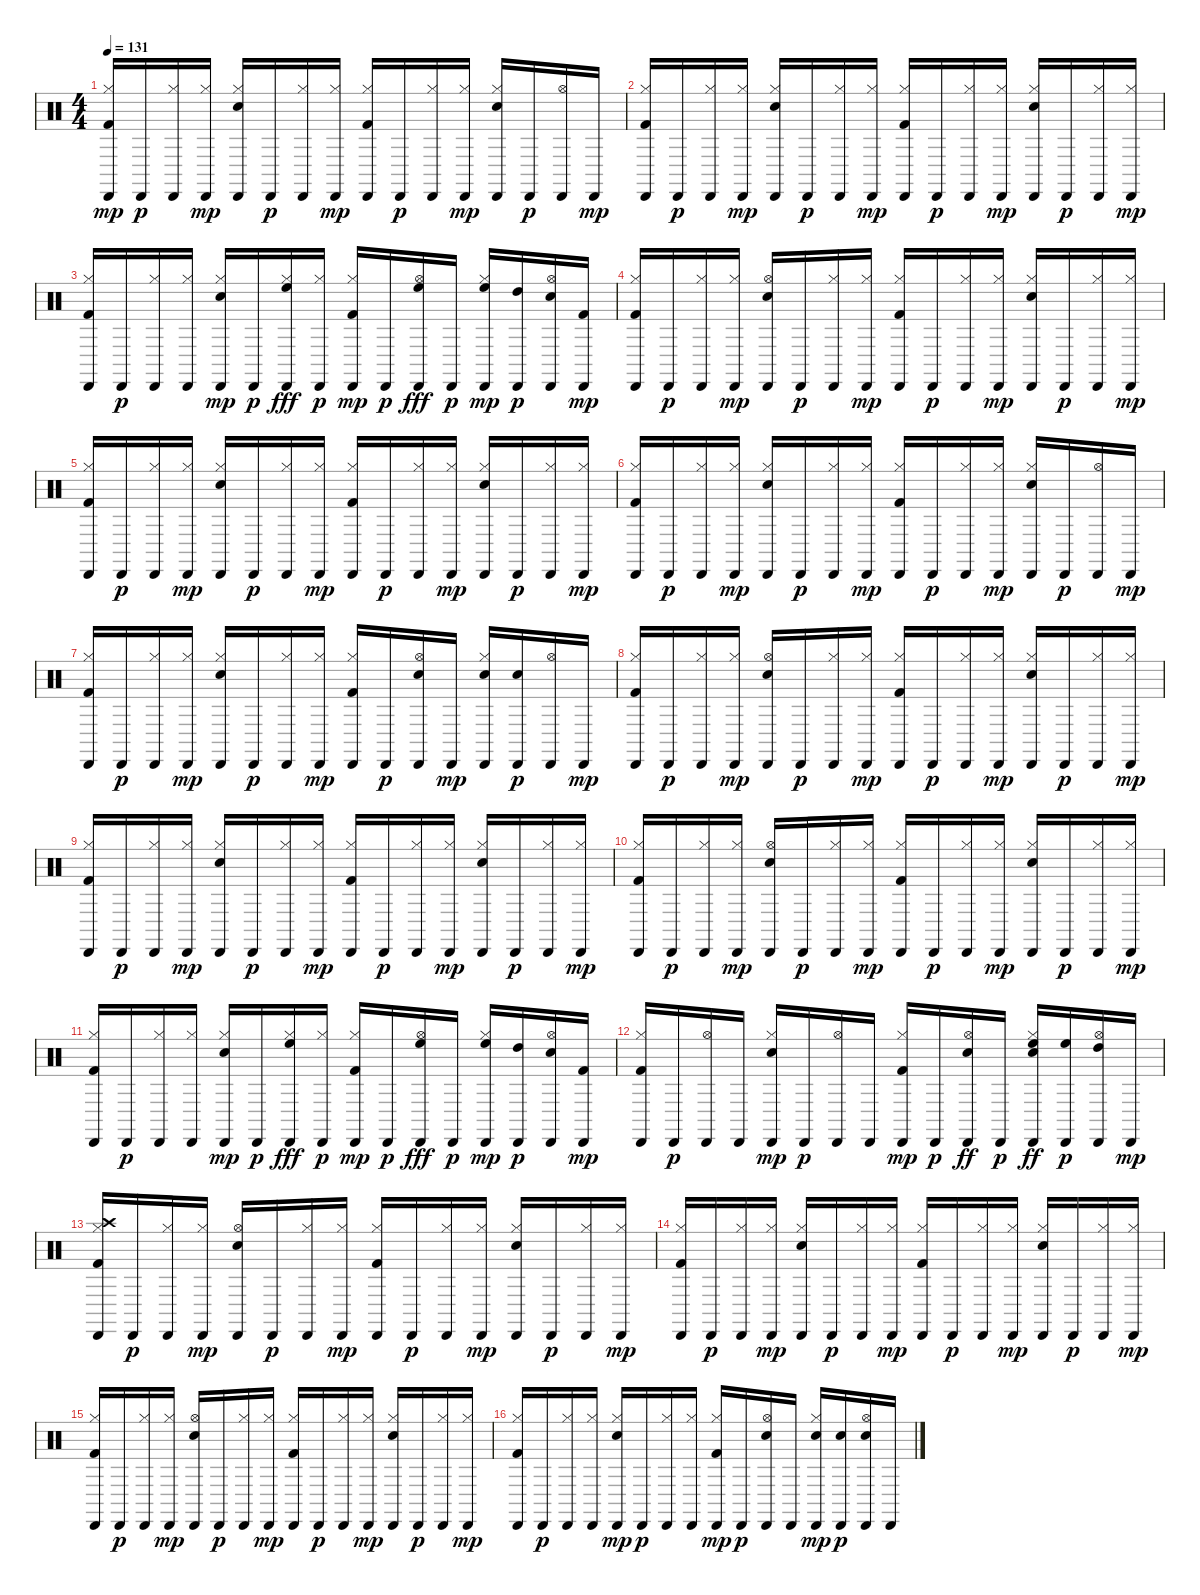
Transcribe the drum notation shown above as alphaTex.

\track "" {instrument percussion}
\staff {score}
\articulation defaults
\ts (4 4)
\tempo 131
\clef neutral
\ks c
("Kick (hit) 2" "Hi-Hat (closed)" "Cabasa (hit)").16{dy mp} "Cabasa (hit)".16{dy p} ("Hi-Hat (closed)" "Cabasa (hit)").16 ("Hi-Hat (closed)" "Cabasa (hit)").16{dy mp} ("Snare (hit) 2" "Hi-Hat (closed)" "Cabasa (hit)").16 "Cabasa (hit)".16{dy p} ("Hi-Hat (closed)" "Cabasa (hit)").16 ("Hi-Hat (closed)" "Cabasa (hit)").16{dy mp} ("Kick (hit) 2" "Hi-Hat (closed)" "Cabasa (hit)").16 "Cabasa (hit)".16{dy p} ("Hi-Hat (closed)" "Cabasa (hit)").16 ("Hi-Hat (closed)" "Cabasa (hit)").16{dy mp} ("Snare (hit) 2" "Hi-Hat (closed)" "Cabasa (hit)").16 "Cabasa (hit)".16{dy p} ("Hi-Hat (open)" "Cabasa (hit)").16 "Cabasa (hit)".16{dy mp} |
("Kick (hit) 2" "Hi-Hat (closed)" "Cabasa (hit)").16 "Cabasa (hit)".16{dy p} ("Hi-Hat (closed)" "Cabasa (hit)").16 ("Hi-Hat (closed)" "Cabasa (hit)").16{dy mp} ("Snare (hit) 2" "Hi-Hat (closed)" "Cabasa (hit)").16 "Cabasa (hit)".16{dy p} ("Hi-Hat (closed)" "Cabasa (hit)").16 ("Hi-Hat (closed)" "Cabasa (hit)").16{dy mp} ("Kick (hit) 2" "Hi-Hat (closed)" "Cabasa (hit)").16 "Cabasa (hit)".16{dy p} ("Hi-Hat (closed)" "Cabasa (hit)").16 ("Hi-Hat (closed)" "Cabasa (hit)").16{dy mp} ("Snare (hit) 2" "Hi-Hat (closed)" "Cabasa (hit)").16 "Cabasa (hit)".16{dy p} ("Hi-Hat (closed)" "Cabasa (hit)").16 ("Hi-Hat (closed)" "Cabasa (hit)").16{dy mp} |
("Kick (hit) 2" "Hi-Hat (closed)" "Cabasa (hit)").16 "Cabasa (hit)".16{dy p} ("Hi-Hat (closed)" "Cabasa (hit)").16 ("Hi-Hat (closed)" "Cabasa (hit)").16 ("Snare (hit) 2" "Hi-Hat (closed)" "Cabasa (hit)").16{dy mp} "Cabasa (hit)".16{dy p} ("Hi-Hat (closed)" "Cabasa (hit)" "High Floor Tom (hit)").16{dy fff} ("Hi-Hat (closed)" "Cabasa (hit)").16{dy p} ("Kick (hit) 2" "Hi-Hat (closed)" "Cabasa (hit)").16{dy mp} "Cabasa (hit)".16{dy p} ("Hi-Hat (open)" "Cabasa (hit)" "High Floor Tom (hit)").16{dy fff} "Cabasa (hit)".16{dy p} ("Hi-Hat (closed)" "Cabasa (hit)" "High Floor Tom (hit)").16{dy mp} ("High Tom (hit)" "Cabasa (hit)").16{dy p} ("Snare (hit) 2" "Hi-Hat (open)" "Cabasa (hit)").16 ("Kick (hit) 2" "Cabasa (hit)").16{dy mp} |
("Kick (hit) 2" "Hi-Hat (closed)" "Cabasa (hit)").16 "Cabasa (hit)".16{dy p} ("Hi-Hat (closed)" "Cabasa (hit)").16 ("Hi-Hat (closed)" "Cabasa (hit)").16{dy mp} ("Snare (hit) 2" "Hi-Hat (open)" "Cabasa (hit)").16 "Cabasa (hit)".16{dy p} ("Hi-Hat (closed)" "Cabasa (hit)").16 ("Hi-Hat (closed)" "Cabasa (hit)").16{dy mp} ("Kick (hit) 2" "Hi-Hat (closed)" "Cabasa (hit)").16 "Cabasa (hit)".16{dy p} ("Hi-Hat (closed)" "Cabasa (hit)").16 ("Hi-Hat (closed)" "Cabasa (hit)").16{dy mp} ("Snare (hit) 2" "Hi-Hat (closed)" "Cabasa (hit)").16 "Cabasa (hit)".16{dy p} ("Hi-Hat (closed)" "Cabasa (hit)").16 ("Hi-Hat (closed)" "Cabasa (hit)").16{dy mp} |
("Kick (hit) 2" "Hi-Hat (closed)" "Cabasa (hit)").16 "Cabasa (hit)".16{dy p} ("Hi-Hat (closed)" "Cabasa (hit)").16 ("Hi-Hat (closed)" "Cabasa (hit)").16{dy mp} ("Snare (hit) 2" "Hi-Hat (closed)" "Cabasa (hit)").16 "Cabasa (hit)".16{dy p} ("Hi-Hat (closed)" "Cabasa (hit)").16 ("Hi-Hat (closed)" "Cabasa (hit)").16{dy mp} ("Kick (hit) 2" "Hi-Hat (closed)" "Cabasa (hit)").16 "Cabasa (hit)".16{dy p} ("Hi-Hat (closed)" "Cabasa (hit)").16 ("Hi-Hat (closed)" "Cabasa (hit)").16{dy mp} ("Snare (hit) 2" "Hi-Hat (closed)" "Cabasa (hit)").16 "Cabasa (hit)".16{dy p} ("Hi-Hat (closed)" "Cabasa (hit)").16 ("Hi-Hat (closed)" "Cabasa (hit)").16{dy mp} |
("Kick (hit) 2" "Hi-Hat (closed)" "Cabasa (hit)").16 "Cabasa (hit)".16{dy p} ("Hi-Hat (closed)" "Cabasa (hit)").16 ("Hi-Hat (closed)" "Cabasa (hit)").16{dy mp} ("Snare (hit) 2" "Hi-Hat (closed)" "Cabasa (hit)").16 "Cabasa (hit)".16{dy p} ("Hi-Hat (closed)" "Cabasa (hit)").16 ("Hi-Hat (closed)" "Cabasa (hit)").16{dy mp} ("Kick (hit) 2" "Hi-Hat (closed)" "Cabasa (hit)").16 "Cabasa (hit)".16{dy p} ("Hi-Hat (closed)" "Cabasa (hit)").16 ("Hi-Hat (closed)" "Cabasa (hit)").16{dy mp} ("Snare (hit) 2" "Hi-Hat (closed)" "Cabasa (hit)").16 "Cabasa (hit)".16{dy p} ("Hi-Hat (open)" "Cabasa (hit)").16 "Cabasa (hit)".16{dy mp} |
("Kick (hit) 2" "Hi-Hat (closed)" "Cabasa (hit)").16 "Cabasa (hit)".16{dy p} ("Hi-Hat (closed)" "Cabasa (hit)").16 ("Hi-Hat (closed)" "Cabasa (hit)").16{dy mp} ("Snare (hit) 2" "Hi-Hat (closed)" "Cabasa (hit)").16 "Cabasa (hit)".16{dy p} ("Hi-Hat (closed)" "Cabasa (hit)").16 ("Hi-Hat (closed)" "Cabasa (hit)").16{dy mp} ("Kick (hit) 2" "Hi-Hat (closed)" "Cabasa (hit)").16 "Cabasa (hit)".16{dy p} ("Snare (hit) 2" "Hi-Hat (open)" "Cabasa (hit)").16 "Cabasa (hit)".16{dy mp} ("Snare (hit) 2" "Hi-Hat (closed)" "Cabasa (hit)").16 ("Snare (hit) 2" "Cabasa (hit)").16{dy p} ("Hi-Hat (open)" "Cabasa (hit)").16 "Cabasa (hit)".16{dy mp} |
("Kick (hit) 2" "Hi-Hat (closed)" "Cabasa (hit)").16 "Cabasa (hit)".16{dy p} ("Hi-Hat (closed)" "Cabasa (hit)").16 ("Hi-Hat (closed)" "Cabasa (hit)").16{dy mp} ("Snare (hit) 2" "Hi-Hat (open)" "Cabasa (hit)").16 "Cabasa (hit)".16{dy p} ("Hi-Hat (closed)" "Cabasa (hit)").16 ("Hi-Hat (closed)" "Cabasa (hit)").16{dy mp} ("Kick (hit) 2" "Hi-Hat (closed)" "Cabasa (hit)").16 "Cabasa (hit)".16{dy p} ("Hi-Hat (closed)" "Cabasa (hit)").16 ("Hi-Hat (closed)" "Cabasa (hit)").16{dy mp} ("Snare (hit) 2" "Hi-Hat (closed)" "Cabasa (hit)").16 "Cabasa (hit)".16{dy p} ("Hi-Hat (closed)" "Cabasa (hit)").16 ("Hi-Hat (closed)" "Cabasa (hit)").16{dy mp} |
("Kick (hit) 2" "Hi-Hat (closed)" "Cabasa (hit)").16 "Cabasa (hit)".16{dy p} ("Hi-Hat (closed)" "Cabasa (hit)").16 ("Hi-Hat (closed)" "Cabasa (hit)").16{dy mp} ("Snare (hit) 2" "Hi-Hat (closed)" "Cabasa (hit)").16 "Cabasa (hit)".16{dy p} ("Hi-Hat (closed)" "Cabasa (hit)").16 ("Hi-Hat (closed)" "Cabasa (hit)").16{dy mp} ("Kick (hit) 2" "Hi-Hat (closed)" "Cabasa (hit)").16 "Cabasa (hit)".16{dy p} ("Hi-Hat (closed)" "Cabasa (hit)").16 ("Hi-Hat (closed)" "Cabasa (hit)").16{dy mp} ("Snare (hit) 2" "Hi-Hat (closed)" "Cabasa (hit)").16 "Cabasa (hit)".16{dy p} ("Hi-Hat (closed)" "Cabasa (hit)").16 ("Hi-Hat (closed)" "Cabasa (hit)").16{dy mp} |
("Kick (hit) 2" "Hi-Hat (closed)" "Cabasa (hit)").16 "Cabasa (hit)".16{dy p} ("Hi-Hat (closed)" "Cabasa (hit)").16 ("Hi-Hat (closed)" "Cabasa (hit)").16{dy mp} ("Snare (hit) 2" "Hi-Hat (open)" "Cabasa (hit)").16 "Cabasa (hit)".16{dy p} ("Hi-Hat (closed)" "Cabasa (hit)").16 ("Hi-Hat (closed)" "Cabasa (hit)").16{dy mp} ("Kick (hit) 2" "Hi-Hat (closed)" "Cabasa (hit)").16 "Cabasa (hit)".16{dy p} ("Hi-Hat (closed)" "Cabasa (hit)").16 ("Hi-Hat (closed)" "Cabasa (hit)").16{dy mp} ("Snare (hit) 2" "Hi-Hat (closed)" "Cabasa (hit)").16 "Cabasa (hit)".16{dy p} ("Hi-Hat (closed)" "Cabasa (hit)").16 ("Hi-Hat (closed)" "Cabasa (hit)").16{dy mp} |
("Kick (hit) 2" "Hi-Hat (closed)" "Cabasa (hit)").16 "Cabasa (hit)".16{dy p} ("Hi-Hat (closed)" "Cabasa (hit)").16 ("Hi-Hat (closed)" "Cabasa (hit)").16 ("Snare (hit) 2" "Hi-Hat (closed)" "Cabasa (hit)").16{dy mp} "Cabasa (hit)".16{dy p} ("Hi-Hat (closed)" "Cabasa (hit)" "High Floor Tom (hit)").16{dy fff} ("Hi-Hat (closed)" "Cabasa (hit)").16{dy p} ("Kick (hit) 2" "Hi-Hat (closed)" "Cabasa (hit)").16{dy mp} "Cabasa (hit)".16{dy p} ("Hi-Hat (open)" "Cabasa (hit)" "High Floor Tom (hit)").16{dy fff} "Cabasa (hit)".16{dy p} ("Hi-Hat (closed)" "Cabasa (hit)" "High Floor Tom (hit)").16{dy mp} ("High Tom (hit)" "Cabasa (hit)").16{dy p} ("Snare (hit) 2" "Hi-Hat (open)" "Cabasa (hit)").16 ("Kick (hit) 2" "Cabasa (hit)").16{dy mp} |
("Kick (hit) 2" "Hi-Hat (closed)" "Cabasa (hit)").16 "Cabasa (hit)".16{dy p} ("Hi-Hat (open)" "Cabasa (hit)").16 "Cabasa (hit)".16 ("Snare (hit) 2" "Hi-Hat (closed)" "Cabasa (hit)").16{dy mp} "Cabasa (hit)".16{dy p} ("Hi-Hat (open)" "Cabasa (hit)").16 "Cabasa (hit)".16 ("Kick (hit) 2" "Hi-Hat (closed)" "Cabasa (hit)").16{dy mp} "Cabasa (hit)".16{dy p} ("Hi-Hat (open)" "Cabasa (hit)" "Electric Snare (hit)").16{dy ff} "Cabasa (hit)".16{dy p} ("Snare (hit) 2" "Hi-Hat (closed)" "Cabasa (hit)" "High Floor Tom (hit)").16{dy ff} ("Cabasa (hit)" "High Floor Tom (hit)").16{dy p} ("Hi-Hat (open)" "High Tom (hit)" "Cabasa (hit)").16 "Cabasa (hit)".16{dy mp} |
("Kick (hit) 2" "Hi-Hat (closed)" "Crash high (hit)" "Cabasa (hit)").16 "Cabasa (hit)".16{dy p} ("Hi-Hat (closed)" "Cabasa (hit)").16 ("Hi-Hat (closed)" "Cabasa (hit)").16{dy mp} ("Snare (hit) 2" "Hi-Hat (open)" "Cabasa (hit)").16 "Cabasa (hit)".16{dy p} ("Hi-Hat (closed)" "Cabasa (hit)").16 ("Hi-Hat (closed)" "Cabasa (hit)").16{dy mp} ("Kick (hit) 2" "Hi-Hat (closed)" "Cabasa (hit)").16 "Cabasa (hit)".16{dy p} ("Hi-Hat (closed)" "Cabasa (hit)").16 ("Hi-Hat (closed)" "Cabasa (hit)").16{dy mp} ("Snare (hit) 2" "Hi-Hat (closed)" "Cabasa (hit)").16 "Cabasa (hit)".16{dy p} ("Hi-Hat (closed)" "Cabasa (hit)").16 ("Hi-Hat (closed)" "Cabasa (hit)").16{dy mp} |
("Kick (hit) 2" "Hi-Hat (closed)" "Cabasa (hit)").16 "Cabasa (hit)".16{dy p} ("Hi-Hat (closed)" "Cabasa (hit)").16 ("Hi-Hat (closed)" "Cabasa (hit)").16{dy mp} ("Snare (hit) 2" "Hi-Hat (closed)" "Cabasa (hit)").16 "Cabasa (hit)".16{dy p} ("Hi-Hat (closed)" "Cabasa (hit)").16 ("Hi-Hat (closed)" "Cabasa (hit)").16{dy mp} ("Kick (hit) 2" "Hi-Hat (closed)" "Cabasa (hit)").16 "Cabasa (hit)".16{dy p} ("Hi-Hat (closed)" "Cabasa (hit)").16 ("Hi-Hat (closed)" "Cabasa (hit)").16{dy mp} ("Snare (hit) 2" "Hi-Hat (closed)" "Cabasa (hit)").16 "Cabasa (hit)".16{dy p} ("Hi-Hat (closed)" "Cabasa (hit)").16 ("Hi-Hat (closed)" "Cabasa (hit)").16{dy mp} |
("Kick (hit) 2" "Hi-Hat (closed)" "Cabasa (hit)").16 "Cabasa (hit)".16{dy p} ("Hi-Hat (closed)" "Cabasa (hit)").16 ("Hi-Hat (closed)" "Cabasa (hit)").16{dy mp} ("Snare (hit) 2" "Hi-Hat (open)" "Cabasa (hit)").16 "Cabasa (hit)".16{dy p} ("Hi-Hat (closed)" "Cabasa (hit)").16 ("Hi-Hat (closed)" "Cabasa (hit)").16{dy mp} ("Kick (hit) 2" "Hi-Hat (closed)" "Cabasa (hit)").16 "Cabasa (hit)".16{dy p} ("Hi-Hat (closed)" "Cabasa (hit)").16 ("Hi-Hat (closed)" "Cabasa (hit)").16{dy mp} ("Snare (hit) 2" "Hi-Hat (closed)" "Cabasa (hit)").16 "Cabasa (hit)".16{dy p} ("Hi-Hat (closed)" "Cabasa (hit)").16 ("Hi-Hat (closed)" "Cabasa (hit)").16{dy mp} |
("Kick (hit) 2" "Hi-Hat (closed)" "Cabasa (hit)").16 "Cabasa (hit)".16{dy p} ("Hi-Hat (closed)" "Cabasa (hit)").16 ("Hi-Hat (closed)" "Cabasa (hit)").16 ("Snare (hit) 2" "Hi-Hat (closed)" "Cabasa (hit)").16{dy mp} "Cabasa (hit)".16{dy p} ("Hi-Hat (closed)" "Cabasa (hit)").16 ("Hi-Hat (closed)" "Cabasa (hit)").16 ("Kick (hit) 2" "Hi-Hat (closed)" "Cabasa (hit)").16{dy mp} "Cabasa (hit)".16{dy p} ("Snare (hit) 2" "Hi-Hat (open)" "Cabasa (hit)").16 "Cabasa (hit)".16 ("Snare (hit) 2" "Hi-Hat (closed)" "Cabasa (hit)").16{dy mp} ("Snare (hit) 2" "Cabasa (hit)").16{dy p} ("Snare (hit) 2" "Hi-Hat (open)" "Cabasa (hit)").16 "Cabasa (hit)".16
